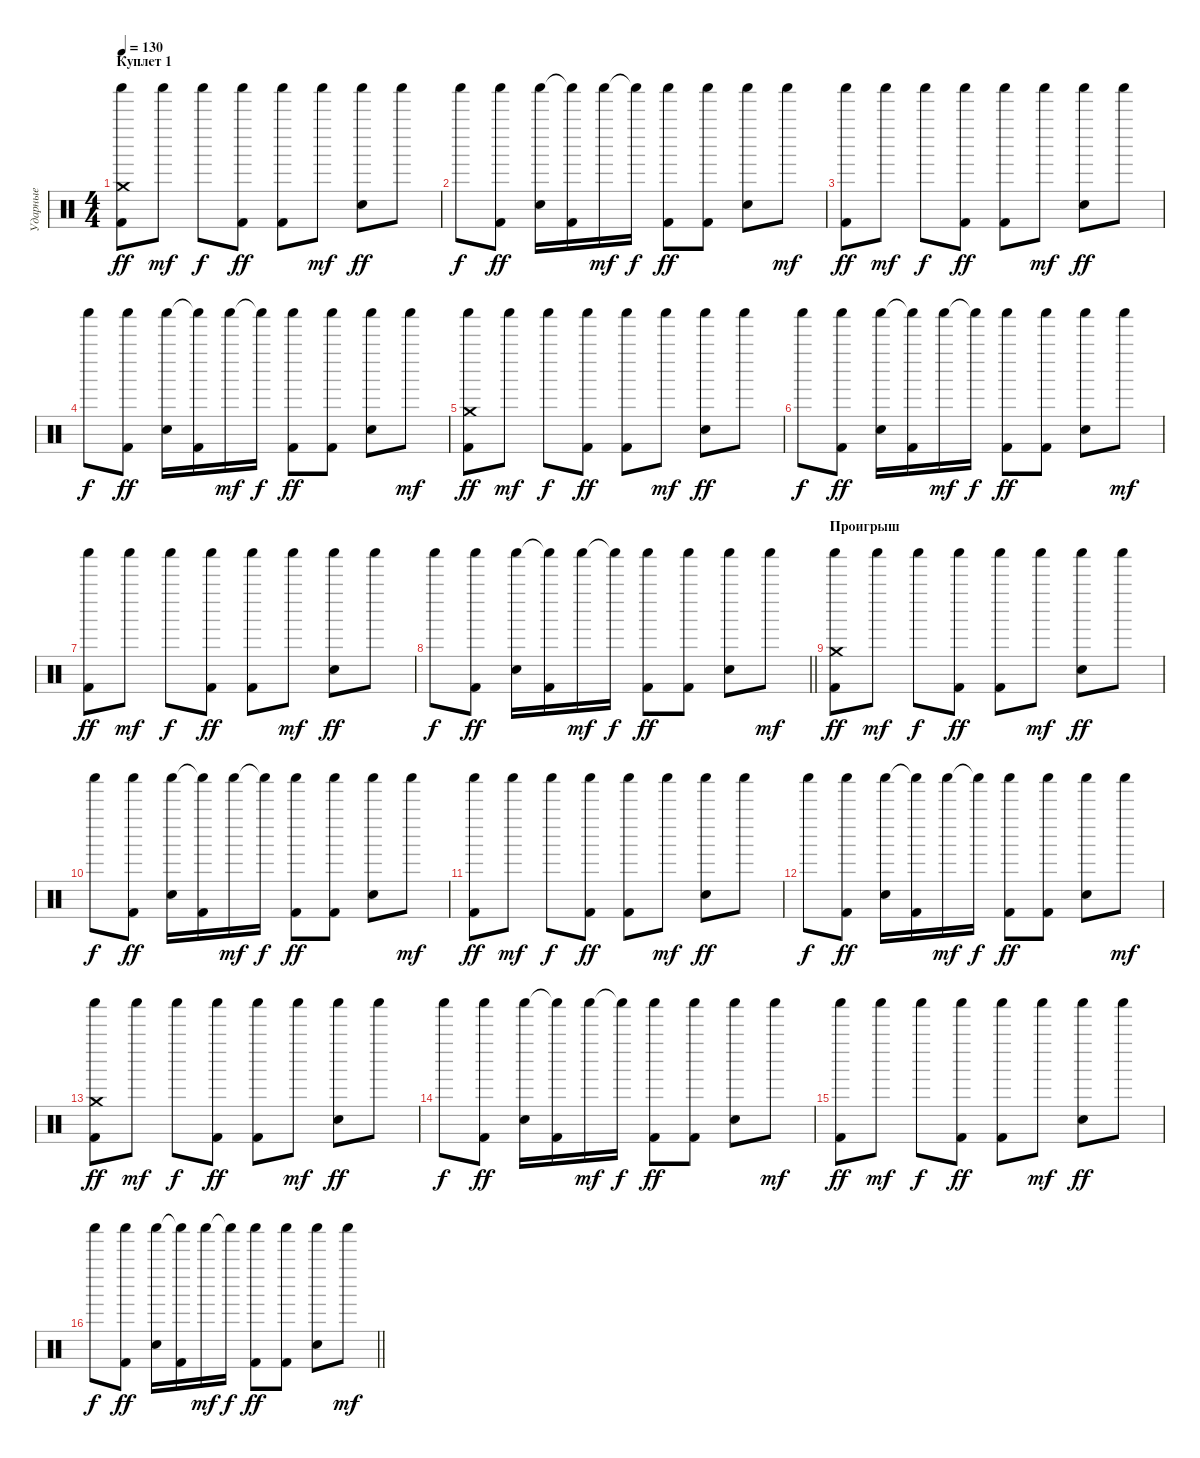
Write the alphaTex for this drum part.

\track ("Ударные" "Ударные") {instrument percussion}
\staff {score}
\articulation defaults
\ts (4 4)
\section ("" "Куплет 1")
\tempo 130
\clef neutral
\ks c
("Shaker (hit)" "Kick (hit) 2" "Crash medium (hit)").8{dy ff} "Shaker (hit)".8{dy mf} "Shaker (hit)".8{dy f} ("Shaker (hit)" "Kick (hit) 2").8{dy ff} ("Shaker (hit)" "Kick (hit) 2").8 "Shaker (hit)".8{dy mf} ("Shaker (hit)" "Snare (hit) 2").8{dy ff} "Shaker (hit)".8 |
"Shaker (hit)".8{dy f} ("Shaker (hit)" "Kick (hit) 2").8{dy ff} ("Shaker (hit)" "Snare (hit) 2").16 ("Shaker (hit)"{t} "Kick (hit) 2").16 "Shaker (hit)".16{dy mf} "Shaker (hit)"{t}.16{dy f} ("Shaker (hit)" "Kick (hit) 2").8{dy ff} ("Shaker (hit)" "Kick (hit) 2").8 ("Shaker (hit)" "Snare (hit) 2").8 "Shaker (hit)".8{dy mf} |
("Shaker (hit)" "Kick (hit) 2").8{dy ff} "Shaker (hit)".8{dy mf} "Shaker (hit)".8{dy f} ("Shaker (hit)" "Kick (hit) 2").8{dy ff} ("Shaker (hit)" "Kick (hit) 2").8 "Shaker (hit)".8{dy mf} ("Shaker (hit)" "Snare (hit) 2").8{dy ff} "Shaker (hit)".8 |
"Shaker (hit)".8{dy f} ("Shaker (hit)" "Kick (hit) 2").8{dy ff} ("Shaker (hit)" "Snare (hit) 2").16 ("Shaker (hit)"{t} "Kick (hit) 2").16 "Shaker (hit)".16{dy mf} "Shaker (hit)"{t}.16{dy f} ("Shaker (hit)" "Kick (hit) 2").8{dy ff} ("Shaker (hit)" "Kick (hit) 2").8 ("Shaker (hit)" "Snare (hit) 2").8 "Shaker (hit)".8{dy mf} |
("Shaker (hit)" "Kick (hit) 2" "Crash medium (hit)").8{dy ff} "Shaker (hit)".8{dy mf} "Shaker (hit)".8{dy f} ("Shaker (hit)" "Kick (hit) 2").8{dy ff} ("Shaker (hit)" "Kick (hit) 2").8 "Shaker (hit)".8{dy mf} ("Shaker (hit)" "Snare (hit) 2").8{dy ff} "Shaker (hit)".8 |
"Shaker (hit)".8{dy f} ("Shaker (hit)" "Kick (hit) 2").8{dy ff} ("Shaker (hit)" "Snare (hit) 2").16 ("Shaker (hit)"{t} "Kick (hit) 2").16 "Shaker (hit)".16{dy mf} "Shaker (hit)"{t}.16{dy f} ("Shaker (hit)" "Kick (hit) 2").8{dy ff} ("Shaker (hit)" "Kick (hit) 2").8 ("Shaker (hit)" "Snare (hit) 2").8 "Shaker (hit)".8{dy mf} |
("Shaker (hit)" "Kick (hit) 2").8{dy ff} "Shaker (hit)".8{dy mf} "Shaker (hit)".8{dy f} ("Shaker (hit)" "Kick (hit) 2").8{dy ff} ("Shaker (hit)" "Kick (hit) 2").8 "Shaker (hit)".8{dy mf} ("Shaker (hit)" "Snare (hit) 2").8{dy ff} "Shaker (hit)".8 |
\barLineRight lightlight "Shaker (hit)".8{dy f}
("Shaker (hit)" "Kick (hit) 2").8{dy ff} ("Shaker (hit)" "Snare (hit) 2").16 ("Shaker (hit)"{t} "Kick (hit) 2").16 "Shaker (hit)".16{dy mf} "Shaker (hit)"{t}.16{dy f} ("Shaker (hit)" "Kick (hit) 2").8{dy ff} ("Shaker (hit)" "Kick (hit) 2").8 ("Shaker (hit)" "Snare (hit) 2").8 "Shaker (hit)".8{dy mf} |
\section ("" "Проигрыш")
("Shaker (hit)" "Kick (hit) 2" "Crash medium (hit)").8{dy ff} "Shaker (hit)".8{dy mf} "Shaker (hit)".8{dy f} ("Shaker (hit)" "Kick (hit) 2").8{dy ff} ("Shaker (hit)" "Kick (hit) 2").8 "Shaker (hit)".8{dy mf} ("Shaker (hit)" "Snare (hit) 2").8{dy ff} "Shaker (hit)".8 |
"Shaker (hit)".8{dy f} ("Shaker (hit)" "Kick (hit) 2").8{dy ff} ("Shaker (hit)" "Snare (hit) 2").16 ("Shaker (hit)"{t} "Kick (hit) 2").16 "Shaker (hit)".16{dy mf} "Shaker (hit)"{t}.16{dy f} ("Shaker (hit)" "Kick (hit) 2").8{dy ff} ("Shaker (hit)" "Kick (hit) 2").8 ("Shaker (hit)" "Snare (hit) 2").8 "Shaker (hit)".8{dy mf} |
("Shaker (hit)" "Kick (hit) 2").8{dy ff} "Shaker (hit)".8{dy mf} "Shaker (hit)".8{dy f} ("Shaker (hit)" "Kick (hit) 2").8{dy ff} ("Shaker (hit)" "Kick (hit) 2").8 "Shaker (hit)".8{dy mf} ("Shaker (hit)" "Snare (hit) 2").8{dy ff} "Shaker (hit)".8 |
"Shaker (hit)".8{dy f} ("Shaker (hit)" "Kick (hit) 2").8{dy ff} ("Shaker (hit)" "Snare (hit) 2").16 ("Shaker (hit)"{t} "Kick (hit) 2").16 "Shaker (hit)".16{dy mf} "Shaker (hit)"{t}.16{dy f} ("Shaker (hit)" "Kick (hit) 2").8{dy ff} ("Shaker (hit)" "Kick (hit) 2").8 ("Shaker (hit)" "Snare (hit) 2").8 "Shaker (hit)".8{dy mf} |
("Shaker (hit)" "Kick (hit) 2" "Crash medium (hit)").8{dy ff} "Shaker (hit)".8{dy mf} "Shaker (hit)".8{dy f} ("Shaker (hit)" "Kick (hit) 2").8{dy ff} ("Shaker (hit)" "Kick (hit) 2").8 "Shaker (hit)".8{dy mf} ("Shaker (hit)" "Snare (hit) 2").8{dy ff} "Shaker (hit)".8 |
"Shaker (hit)".8{dy f} ("Shaker (hit)" "Kick (hit) 2").8{dy ff} ("Shaker (hit)" "Snare (hit) 2").16 ("Shaker (hit)"{t} "Kick (hit) 2").16 "Shaker (hit)".16{dy mf} "Shaker (hit)"{t}.16{dy f} ("Shaker (hit)" "Kick (hit) 2").8{dy ff} ("Shaker (hit)" "Kick (hit) 2").8 ("Shaker (hit)" "Snare (hit) 2").8 "Shaker (hit)".8{dy mf} |
("Shaker (hit)" "Kick (hit) 2").8{dy ff} "Shaker (hit)".8{dy mf} "Shaker (hit)".8{dy f} ("Shaker (hit)" "Kick (hit) 2").8{dy ff} ("Shaker (hit)" "Kick (hit) 2").8 "Shaker (hit)".8{dy mf} ("Shaker (hit)" "Snare (hit) 2").8{dy ff} "Shaker (hit)".8 |
\barLineRight lightlight "Shaker (hit)".8{dy f}
("Shaker (hit)" "Kick (hit) 2").8{dy ff} ("Shaker (hit)" "Snare (hit) 2").16 ("Shaker (hit)"{t} "Kick (hit) 2").16 "Shaker (hit)".16{dy mf} "Shaker (hit)"{t}.16{dy f} ("Shaker (hit)" "Kick (hit) 2").8{dy ff} ("Shaker (hit)" "Kick (hit) 2").8 ("Shaker (hit)" "Snare (hit) 2").8 "Shaker (hit)".8{dy mf}
